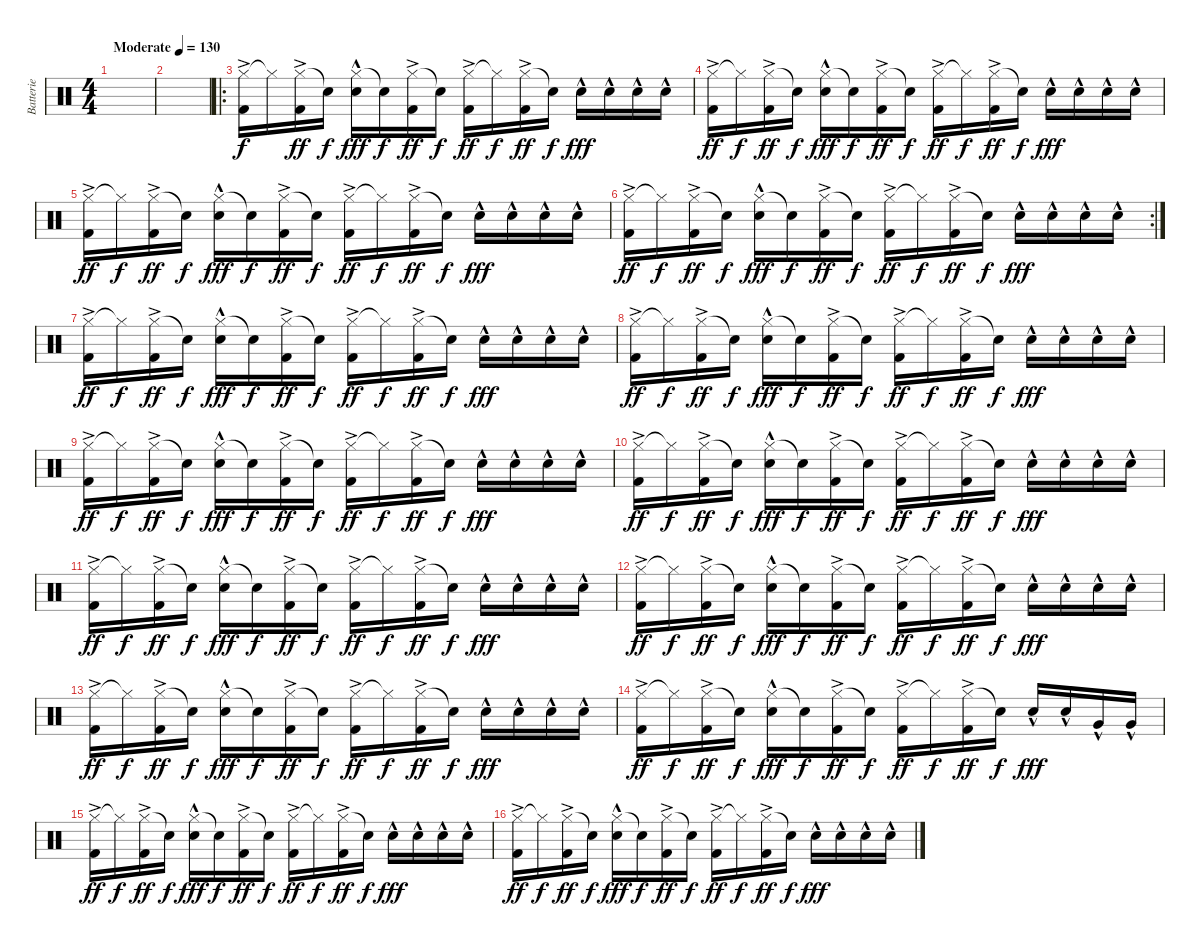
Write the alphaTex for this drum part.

\track ("Batterie" "Batterie") {instrument percussion}
\staff {score}
\articulation defaults
\ts (4 4)
\tempo (130 "Moderate")
\clef neutral
\ks c
|
|
\ro
("Hi-Hat (closed)"{ac} "Kick (hit) 2"{ac}).16 "Hi-Hat (closed)"{t}.16{dy f} ("Hi-Hat (closed)"{ac} "Kick (hit) 2"{ac}).16{dy ff} "Snare (hit)"{t}.16{dy f} ("Hi-Hat (closed)"{hac} "Electric Snare (hit)"{hac}).16{dy fff} "Snare (hit)"{t}.16{dy f} ("Hi-Hat (closed)"{ac} "Kick (hit) 2"{ac}).16{dy ff} "Snare (hit)"{t}.16{dy f} ("Hi-Hat (closed)"{ac} "Kick (hit) 2"{ac}).16{dy ff} "Hi-Hat (closed)"{t}.16{dy f} ("Hi-Hat (closed)"{ac} "Kick (hit) 2"{ac}).16{dy ff} "Snare (hit)"{t}.16{dy f} "Electric Snare (hit)"{hac}.16{dy fff} "Electric Snare (hit)"{hac}.16 "Electric Snare (hit)"{hac}.16 "Electric Snare (hit)"{hac}.16 |
("Hi-Hat (closed)"{ac} "Kick (hit) 2"{ac}).16{dy ff} "Hi-Hat (closed)"{t}.16{dy f} ("Hi-Hat (closed)"{ac} "Kick (hit) 2"{ac}).16{dy ff} "Snare (hit)"{t}.16{dy f} ("Hi-Hat (closed)"{hac} "Electric Snare (hit)"{hac}).16{dy fff} "Snare (hit)"{t}.16{dy f} ("Hi-Hat (closed)"{ac} "Kick (hit) 2"{ac}).16{dy ff} "Snare (hit)"{t}.16{dy f} ("Hi-Hat (closed)"{ac} "Kick (hit) 2"{ac}).16{dy ff} "Hi-Hat (closed)"{t}.16{dy f} ("Hi-Hat (closed)"{ac} "Kick (hit) 2"{ac}).16{dy ff} "Snare (hit)"{t}.16{dy f} "Electric Snare (hit)"{hac}.16{dy fff} "Electric Snare (hit)"{hac}.16 "Electric Snare (hit)"{hac}.16 "Electric Snare (hit)"{hac}.16 |
("Hi-Hat (closed)"{ac} "Kick (hit) 2"{ac}).16{dy ff} "Hi-Hat (closed)"{t}.16{dy f} ("Hi-Hat (closed)"{ac} "Kick (hit) 2"{ac}).16{dy ff} "Snare (hit)"{t}.16{dy f} ("Hi-Hat (closed)"{hac} "Electric Snare (hit)"{hac}).16{dy fff} "Snare (hit)"{t}.16{dy f} ("Hi-Hat (closed)"{ac} "Kick (hit) 2"{ac}).16{dy ff} "Snare (hit)"{t}.16{dy f} ("Hi-Hat (closed)"{ac} "Kick (hit) 2"{ac}).16{dy ff} "Hi-Hat (closed)"{t}.16{dy f} ("Hi-Hat (closed)"{ac} "Kick (hit) 2"{ac}).16{dy ff} "Snare (hit)"{t}.16{dy f} "Electric Snare (hit)"{hac}.16{dy fff} "Electric Snare (hit)"{hac}.16 "Electric Snare (hit)"{hac}.16 "Electric Snare (hit)"{hac}.16 |
\rc 2
("Hi-Hat (closed)"{ac} "Kick (hit) 2"{ac}).16{dy ff} "Hi-Hat (closed)"{t}.16{dy f} ("Hi-Hat (closed)"{ac} "Kick (hit) 2"{ac}).16{dy ff} "Snare (hit)"{t}.16{dy f} ("Hi-Hat (closed)"{hac} "Electric Snare (hit)"{hac}).16{dy fff} "Snare (hit)"{t}.16{dy f} ("Hi-Hat (closed)"{ac} "Kick (hit) 2"{ac}).16{dy ff} "Snare (hit)"{t}.16{dy f} ("Hi-Hat (closed)"{ac} "Kick (hit) 2"{ac}).16{dy ff} "Hi-Hat (closed)"{t}.16{dy f} ("Hi-Hat (closed)"{ac} "Kick (hit) 2"{ac}).16{dy ff} "Snare (hit)"{t}.16{dy f} "Electric Snare (hit)"{hac}.16{dy fff} "Electric Snare (hit)"{hac}.16 "Electric Snare (hit)"{hac}.16 "Electric Snare (hit)"{hac}.16 |
("Hi-Hat (closed)"{ac} "Kick (hit) 2"{ac}).16{dy ff} "Hi-Hat (closed)"{t}.16{dy f} ("Hi-Hat (closed)"{ac} "Kick (hit) 2"{ac}).16{dy ff} "Snare (hit)"{t}.16{dy f} ("Hi-Hat (closed)"{hac} "Electric Snare (hit)"{hac}).16{dy fff} "Snare (hit)"{t}.16{dy f} ("Hi-Hat (closed)"{ac} "Kick (hit) 2"{ac}).16{dy ff} "Snare (hit)"{t}.16{dy f} ("Hi-Hat (closed)"{ac} "Kick (hit) 2"{ac}).16{dy ff} "Hi-Hat (closed)"{t}.16{dy f} ("Hi-Hat (closed)"{ac} "Kick (hit) 2"{ac}).16{dy ff} "Snare (hit)"{t}.16{dy f} "Electric Snare (hit)"{hac}.16{dy fff} "Electric Snare (hit)"{hac}.16 "Electric Snare (hit)"{hac}.16 "Electric Snare (hit)"{hac}.16 |
("Hi-Hat (closed)"{ac} "Kick (hit) 2"{ac}).16{dy ff} "Hi-Hat (closed)"{t}.16{dy f} ("Hi-Hat (closed)"{ac} "Kick (hit) 2"{ac}).16{dy ff} "Snare (hit)"{t}.16{dy f} ("Hi-Hat (closed)"{hac} "Electric Snare (hit)"{hac}).16{dy fff} "Snare (hit)"{t}.16{dy f} ("Hi-Hat (closed)"{ac} "Kick (hit) 2"{ac}).16{dy ff} "Snare (hit)"{t}.16{dy f} ("Hi-Hat (closed)"{ac} "Kick (hit) 2"{ac}).16{dy ff} "Hi-Hat (closed)"{t}.16{dy f} ("Hi-Hat (closed)"{ac} "Kick (hit) 2"{ac}).16{dy ff} "Snare (hit)"{t}.16{dy f} "Electric Snare (hit)"{hac}.16{dy fff} "Electric Snare (hit)"{hac}.16 "Electric Snare (hit)"{hac}.16 "Electric Snare (hit)"{hac}.16 |
("Hi-Hat (closed)"{ac} "Kick (hit) 2"{ac}).16{dy ff} "Hi-Hat (closed)"{t}.16{dy f} ("Hi-Hat (closed)"{ac} "Kick (hit) 2"{ac}).16{dy ff} "Snare (hit)"{t}.16{dy f} ("Hi-Hat (closed)"{hac} "Electric Snare (hit)"{hac}).16{dy fff} "Snare (hit)"{t}.16{dy f} ("Hi-Hat (closed)"{ac} "Kick (hit) 2"{ac}).16{dy ff} "Snare (hit)"{t}.16{dy f} ("Hi-Hat (closed)"{ac} "Kick (hit) 2"{ac}).16{dy ff} "Hi-Hat (closed)"{t}.16{dy f} ("Hi-Hat (closed)"{ac} "Kick (hit) 2"{ac}).16{dy ff} "Snare (hit)"{t}.16{dy f} "Electric Snare (hit)"{hac}.16{dy fff} "Electric Snare (hit)"{hac}.16 "Electric Snare (hit)"{hac}.16 "Electric Snare (hit)"{hac}.16 |
("Hi-Hat (closed)"{ac} "Kick (hit) 2"{ac}).16{dy ff} "Hi-Hat (closed)"{t}.16{dy f} ("Hi-Hat (closed)"{ac} "Kick (hit) 2"{ac}).16{dy ff} "Snare (hit)"{t}.16{dy f} ("Hi-Hat (closed)"{hac} "Electric Snare (hit)"{hac}).16{dy fff} "Snare (hit)"{t}.16{dy f} ("Hi-Hat (closed)"{ac} "Kick (hit) 2"{ac}).16{dy ff} "Snare (hit)"{t}.16{dy f} ("Hi-Hat (closed)"{ac} "Kick (hit) 2"{ac}).16{dy ff} "Hi-Hat (closed)"{t}.16{dy f} ("Hi-Hat (closed)"{ac} "Kick (hit) 2"{ac}).16{dy ff} "Snare (hit)"{t}.16{dy f} "Electric Snare (hit)"{hac}.16{dy fff} "Electric Snare (hit)"{hac}.16 "Electric Snare (hit)"{hac}.16 "Electric Snare (hit)"{hac}.16 |
("Hi-Hat (closed)"{ac} "Kick (hit) 2"{ac}).16{dy ff} "Hi-Hat (closed)"{t}.16{dy f} ("Hi-Hat (closed)"{ac} "Kick (hit) 2"{ac}).16{dy ff} "Snare (hit)"{t}.16{dy f} ("Hi-Hat (closed)"{hac} "Electric Snare (hit)"{hac}).16{dy fff} "Snare (hit)"{t}.16{dy f} ("Hi-Hat (closed)"{ac} "Kick (hit) 2"{ac}).16{dy ff} "Snare (hit)"{t}.16{dy f} ("Hi-Hat (closed)"{ac} "Kick (hit) 2"{ac}).16{dy ff} "Hi-Hat (closed)"{t}.16{dy f} ("Hi-Hat (closed)"{ac} "Kick (hit) 2"{ac}).16{dy ff} "Snare (hit)"{t}.16{dy f} "Electric Snare (hit)"{hac}.16{dy fff} "Electric Snare (hit)"{hac}.16 "Electric Snare (hit)"{hac}.16 "Electric Snare (hit)"{hac}.16 |
("Hi-Hat (closed)"{ac} "Kick (hit) 2"{ac}).16{dy ff} "Hi-Hat (closed)"{t}.16{dy f} ("Hi-Hat (closed)"{ac} "Kick (hit) 2"{ac}).16{dy ff} "Snare (hit)"{t}.16{dy f} ("Hi-Hat (closed)"{hac} "Electric Snare (hit)"{hac}).16{dy fff} "Snare (hit)"{t}.16{dy f} ("Hi-Hat (closed)"{ac} "Kick (hit) 2"{ac}).16{dy ff} "Snare (hit)"{t}.16{dy f} ("Hi-Hat (closed)"{ac} "Kick (hit) 2"{ac}).16{dy ff} "Hi-Hat (closed)"{t}.16{dy f} ("Hi-Hat (closed)"{ac} "Kick (hit) 2"{ac}).16{dy ff} "Snare (hit)"{t}.16{dy f} "Electric Snare (hit)"{hac}.16{dy fff} "Electric Snare (hit)"{hac}.16 "Electric Snare (hit)"{hac}.16 "Electric Snare (hit)"{hac}.16 |
("Hi-Hat (closed)"{ac} "Kick (hit) 2"{ac}).16{dy ff} "Hi-Hat (closed)"{t}.16{dy f} ("Hi-Hat (closed)"{ac} "Kick (hit) 2"{ac}).16{dy ff} "Snare (hit)"{t}.16{dy f} ("Hi-Hat (closed)"{hac} "Electric Snare (hit)"{hac}).16{dy fff} "Snare (hit)"{t}.16{dy f} ("Hi-Hat (closed)"{ac} "Kick (hit) 2"{ac}).16{dy ff} "Snare (hit)"{t}.16{dy f} ("Hi-Hat (closed)"{ac} "Kick (hit) 2"{ac}).16{dy ff} "Hi-Hat (closed)"{t}.16{dy f} ("Hi-Hat (closed)"{ac} "Kick (hit) 2"{ac}).16{dy ff} "Snare (hit)"{t}.16{dy f} "Electric Snare (hit)"{hac}.16{dy fff} "Electric Snare (hit)"{hac}.16 "Electric Snare (hit)"{hac}.16 "Electric Snare (hit)"{hac}.16 |
("Hi-Hat (closed)"{ac} "Kick (hit) 2"{ac}).16{dy ff} "Hi-Hat (closed)"{t}.16{dy f} ("Hi-Hat (closed)"{ac} "Kick (hit) 2"{ac}).16{dy ff} "Snare (hit)"{t}.16{dy f} ("Hi-Hat (closed)"{hac} "Electric Snare (hit)"{hac}).16{dy fff} "Snare (hit)"{t}.16{dy f} ("Hi-Hat (closed)"{ac} "Kick (hit) 2"{ac}).16{dy ff} "Snare (hit)"{t}.16{dy f} ("Hi-Hat (closed)"{ac} "Kick (hit) 2"{ac}).16{dy ff} "Hi-Hat (closed)"{t}.16{dy f} ("Hi-Hat (closed)"{ac} "Kick (hit) 2"{ac}).16{dy ff} "Snare (hit)"{t}.16{dy f} "Electric Snare (hit)"{hac}.16{dy fff} "Electric Snare (hit)"{hac}.16 "Very Low Tom (hit)"{hac}.16 "Very Low Tom (hit)"{hac}.16 |
("Hi-Hat (closed)"{ac} "Kick (hit) 2"{ac}).16{dy ff} "Hi-Hat (closed)"{t}.16{dy f} ("Hi-Hat (closed)"{ac} "Kick (hit) 2"{ac}).16{dy ff} "Snare (hit)"{t}.16{dy f} ("Hi-Hat (closed)"{hac} "Electric Snare (hit)"{hac}).16{dy fff} "Snare (hit)"{t}.16{dy f} ("Hi-Hat (closed)"{ac} "Kick (hit) 2"{ac}).16{dy ff} "Snare (hit)"{t}.16{dy f} ("Hi-Hat (closed)"{ac} "Kick (hit) 2"{ac}).16{dy ff} "Hi-Hat (closed)"{t}.16{dy f} ("Hi-Hat (closed)"{ac} "Kick (hit) 2"{ac}).16{dy ff} "Snare (hit)"{t}.16{dy f} "Electric Snare (hit)"{hac}.16{dy fff} "Electric Snare (hit)"{hac}.16 "Electric Snare (hit)"{hac}.16 "Electric Snare (hit)"{hac}.16 |
("Hi-Hat (closed)"{ac} "Kick (hit) 2"{ac}).16{dy ff} "Hi-Hat (closed)"{t}.16{dy f} ("Hi-Hat (closed)"{ac} "Kick (hit) 2"{ac}).16{dy ff} "Snare (hit)"{t}.16{dy f} ("Hi-Hat (closed)"{hac} "Electric Snare (hit)"{hac}).16{dy fff} "Snare (hit)"{t}.16{dy f} ("Hi-Hat (closed)"{ac} "Kick (hit) 2"{ac}).16{dy ff} "Snare (hit)"{t}.16{dy f} ("Hi-Hat (closed)"{ac} "Kick (hit) 2"{ac}).16{dy ff} "Hi-Hat (closed)"{t}.16{dy f} ("Hi-Hat (closed)"{ac} "Kick (hit) 2"{ac}).16{dy ff} "Snare (hit)"{t}.16{dy f} "Electric Snare (hit)"{hac}.16{dy fff} "Electric Snare (hit)"{hac}.16 "Electric Snare (hit)"{hac}.16 "Electric Snare (hit)"{hac}.16
